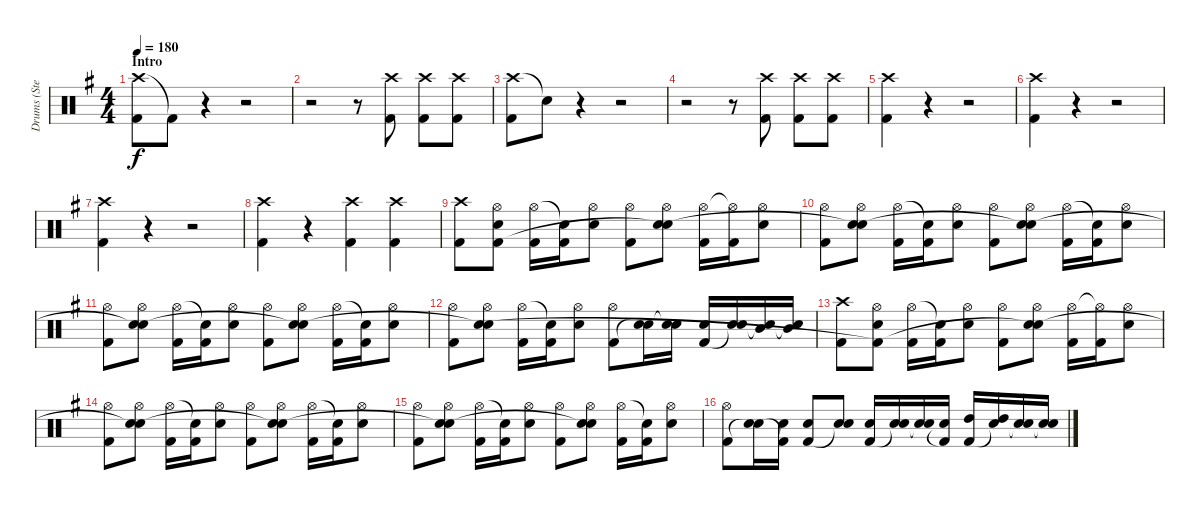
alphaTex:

\track ("Drums (Stevo)" "Drums (Ste") {instrument percussion}
\staff {score}
\articulation defaults
\ts (4 4)
\section ("" "Intro")
\tempo 180
\clef neutral
\ks g
("Crash high (hit)" "Kick (hit) 2").8{dy f} "Kick (hit) 2"{t}.8 r.4 r.2 |
r.2 r.8 ("Crash high (hit)" "Kick (hit) 2").8 ("Crash high (hit)" "Kick (hit) 2").8 ("Crash high (hit)" "Kick (hit) 2").8 |
("Crash high (hit)" "Kick (hit) 2").8 "Snare (hit)"{t}.8 r.4 r.2 |
r.2 r.8 ("Crash high (hit)" "Kick (hit) 2").8 ("Crash high (hit)" "Kick (hit) 2").8 ("Crash high (hit)" "Kick (hit) 2").8 |
("Crash high (hit)" "Kick (hit) 2").4 r.4 r.2 |
("Crash high (hit)" "Kick (hit) 2").4 r.4 r.2 |
("Crash high (hit)" "Kick (hit) 2").4 r.4 r.2 |
("Crash high (hit)" "Kick (hit) 2").4 r.4 ("Crash high (hit)" "Kick (hit) 2").4 ("Crash high (hit)" "Kick (hit) 2").4 |
("Crash high (hit)" "Kick (hit) 2").8 ("Hi-Hat (open)" "Snare (hit) 2" "Kick (hit) 2").8 ("Hi-Hat (open)" "Kick (hit) 2").16 ("Snare (hit)"{t} "Kick (hit) 2").16 ("Hi-Hat (open)" "Snare (hit) 2").8 ("Hi-Hat (open)" "Kick (hit) 2").8 ("Hi-Hat (open)" "Snare (hit) 2" "Snare (hit)"{t}).8 ("Hi-Hat (open)" "Kick (hit) 2").16 ("Hi-Hat (open)"{t} "Kick (hit) 2").16 ("Hi-Hat (open)" "Snare (hit) 2").8 |
("Hi-Hat (open)" "Kick (hit) 2").8 ("Hi-Hat (open)" "Snare (hit) 2" "Snare (hit)"{t}).8 ("Hi-Hat (open)" "Kick (hit) 2").16 ("Snare (hit)"{t} "Kick (hit) 2").16 ("Hi-Hat (open)" "Snare (hit) 2").8 ("Hi-Hat (open)" "Kick (hit) 2").8 ("Hi-Hat (open)" "Snare (hit) 2" "Snare (hit)"{t}).8 ("Hi-Hat (open)" "Kick (hit) 2").16 ("Snare (hit)"{t} "Kick (hit) 2").16 ("Hi-Hat (open)" "Snare (hit) 2").8 |
("Hi-Hat (open)" "Kick (hit) 2").8 ("Hi-Hat (open)" "Snare (hit) 2" "Snare (hit)"{t}).8 ("Hi-Hat (open)" "Kick (hit) 2").16 ("Snare (hit)"{t} "Kick (hit) 2").16 ("Hi-Hat (open)" "Snare (hit) 2").8 ("Hi-Hat (open)" "Kick (hit) 2").8 ("Hi-Hat (open)" "Snare (hit) 2" "Snare (hit)"{t}).8 ("Hi-Hat (open)" "Kick (hit) 2").16 ("Snare (hit)"{t} "Kick (hit) 2").16 ("Hi-Hat (open)" "Snare (hit) 2").8 |
("Hi-Hat (open)" "Kick (hit) 2").8 ("Hi-Hat (open)" "Snare (hit) 2" "Snare (hit)"{t}).8 ("Hi-Hat (open)" "Kick (hit) 2").16 ("Snare (hit)"{t} "Kick (hit) 2").16 ("Hi-Hat (open)" "Snare (hit) 2").8 ("Hi-Hat (open)" "Kick (hit) 2").8 ("Snare (hit) 2" "Snare (hit)"{t}).16 ("Snare (hit) 2" "Snare (hit)"{t}).16 ("Snare (hit) 2" "Kick (hit) 2").16 ("Snare (hit) 2" "Snare (hit)"{t}).16 ("Mid Tom (hit)" "Snare (hit)"{t}).16 ("Mid Tom (hit)" "Snare (hit)"{t}).16 |
("Crash high (hit)" "Kick (hit) 2").8 ("Hi-Hat (open)" "Snare (hit) 2" "Kick (hit) 2"{t}).8 ("Hi-Hat (open)" "Kick (hit) 2").16 ("Snare (hit)"{t} "Kick (hit) 2").16 ("Hi-Hat (open)" "Snare (hit) 2").8 ("Hi-Hat (open)" "Kick (hit) 2").8 ("Hi-Hat (open)" "Snare (hit) 2" "Snare (hit)"{t}).8 ("Hi-Hat (open)" "Kick (hit) 2").16 ("Hi-Hat (open)"{t} "Kick (hit) 2").16 ("Hi-Hat (open)" "Snare (hit) 2").8 |
("Hi-Hat (open)" "Kick (hit) 2").8 ("Hi-Hat (open)" "Snare (hit) 2" "Snare (hit)"{t}).8 ("Hi-Hat (open)" "Kick (hit) 2").16 ("Snare (hit)"{t} "Kick (hit) 2").16 ("Hi-Hat (open)" "Snare (hit) 2").8 ("Hi-Hat (open)" "Kick (hit) 2").8 ("Hi-Hat (open)" "Snare (hit) 2" "Snare (hit)"{t}).8 ("Hi-Hat (open)" "Kick (hit) 2").16 ("Snare (hit)"{t} "Kick (hit) 2").16 ("Hi-Hat (open)" "Snare (hit) 2").8 |
("Hi-Hat (open)" "Kick (hit) 2").8 ("Hi-Hat (open)" "Snare (hit) 2" "Snare (hit)"{t}).8 ("Hi-Hat (open)" "Kick (hit) 2").16 ("Snare (hit)"{t} "Kick (hit) 2").16 ("Hi-Hat (open)" "Snare (hit) 2").8 ("Hi-Hat (open)" "Kick (hit) 2").8 ("Hi-Hat (open)" "Snare (hit) 2" "Snare (hit)"{t}).8 ("Hi-Hat (open)" "Kick (hit) 2").16 ("Snare (hit)"{t} "Kick (hit) 2").16 ("Hi-Hat (open)" "Snare (hit) 2").8 |
("Hi-Hat (open)" "Kick (hit) 2").8 ("Snare (hit) 2" "Snare (hit)"{t}).16 ("Snare (hit) 2" "Kick (hit) 2"{t}).16 ("Snare (hit) 2" "Kick (hit) 2").8 ("Snare (hit) 2" "Snare (hit)"{t}).8 ("Snare (hit) 2" "Kick (hit) 2").16 ("Snare (hit) 2" "Snare (hit)"{t}).16 ("Snare (hit) 2" "Snare (hit)"{t}).16 ("Snare (hit) 2" "Kick (hit) 2"{t}).16 ("High Tom (hit)" "Kick (hit) 2").16 ("High Tom (hit)" "Snare (hit)"{t}).16 ("Snare (hit) 2" "Snare (hit)"{t}).16 ("Snare (hit) 2" "Snare (hit)"{t}).16
